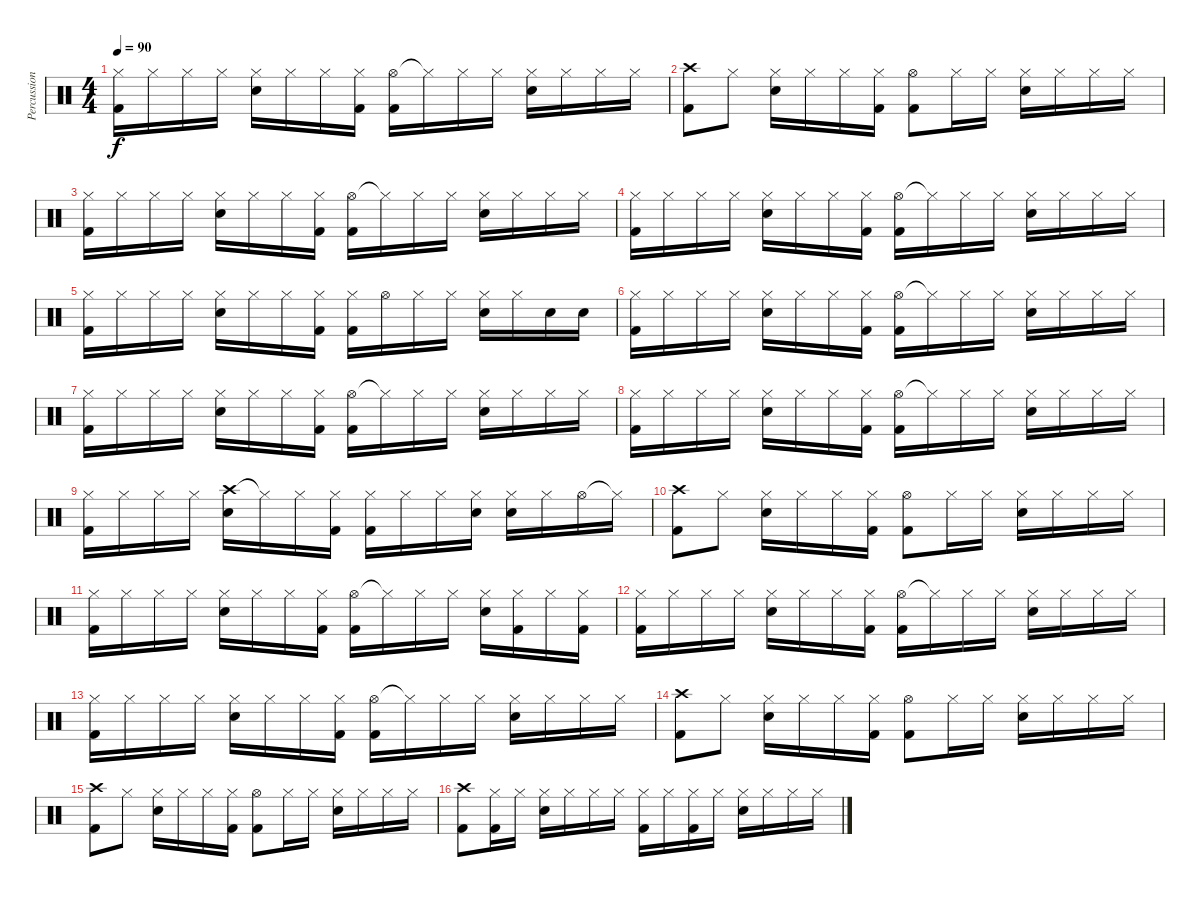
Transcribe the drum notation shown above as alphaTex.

\track ("Percussion" "Percussion") {instrument percussion}
\staff {score}
\articulation defaults
\ts (4 4)
\tempo 90
\clef neutral
\ks c
("Hi-Hat (closed)" "Kick (hit) 2").16{dy f} "Hi-Hat (closed)".16 "Hi-Hat (closed)".16 "Hi-Hat (closed)".16 ("Hi-Hat (closed)" "Electric Snare (hit)").16 "Hi-Hat (closed)".16 "Hi-Hat (closed)".16 ("Hi-Hat (closed)" "Kick (hit) 2").16 ("Hi-Hat (open)" "Kick (hit) 2").16 "Hi-Hat (closed)"{t}.16 "Hi-Hat (closed)".16 "Hi-Hat (closed)".16 ("Hi-Hat (closed)" "Electric Snare (hit)").16 "Hi-Hat (closed)".16 "Hi-Hat (closed)".16 "Hi-Hat (closed)".16 |
("Crash high (hit)" "Kick (hit) 2").8 "Hi-Hat (closed)".8 ("Hi-Hat (closed)" "Electric Snare (hit)").16 "Hi-Hat (closed)".16 "Hi-Hat (closed)".16 ("Hi-Hat (closed)" "Kick (hit) 2").16 ("Hi-Hat (open)" "Kick (hit) 2").8 "Hi-Hat (closed)".16 "Hi-Hat (closed)".16 ("Hi-Hat (closed)" "Electric Snare (hit)").16 "Hi-Hat (closed)".16 "Hi-Hat (closed)".16 "Hi-Hat (closed)".16 |
("Hi-Hat (closed)" "Kick (hit) 2").16 "Hi-Hat (closed)".16 "Hi-Hat (closed)".16 "Hi-Hat (closed)".16 ("Hi-Hat (closed)" "Electric Snare (hit)").16 "Hi-Hat (closed)".16 "Hi-Hat (closed)".16 ("Hi-Hat (closed)" "Kick (hit) 2").16 ("Hi-Hat (open)" "Kick (hit) 2").16 "Hi-Hat (closed)"{t}.16 "Hi-Hat (closed)".16 "Hi-Hat (closed)".16 ("Hi-Hat (closed)" "Electric Snare (hit)").16 "Hi-Hat (closed)".16 "Hi-Hat (closed)".16 "Hi-Hat (closed)".16 |
("Hi-Hat (closed)" "Kick (hit) 2").16 "Hi-Hat (closed)".16 "Hi-Hat (closed)".16 "Hi-Hat (closed)".16 ("Hi-Hat (closed)" "Electric Snare (hit)").16 "Hi-Hat (closed)".16 "Hi-Hat (closed)".16 ("Hi-Hat (closed)" "Kick (hit) 2").16 ("Hi-Hat (open)" "Kick (hit) 2").16 "Hi-Hat (closed)"{t}.16 "Hi-Hat (closed)".16 "Hi-Hat (closed)".16 ("Hi-Hat (closed)" "Electric Snare (hit)").16 "Hi-Hat (closed)".16 "Hi-Hat (closed)".16 "Hi-Hat (closed)".16 |
("Hi-Hat (closed)" "Kick (hit) 2").16 "Hi-Hat (closed)".16 "Hi-Hat (closed)".16 "Hi-Hat (closed)".16 ("Hi-Hat (closed)" "Electric Snare (hit)").16 "Hi-Hat (closed)".16 "Hi-Hat (closed)".16 ("Hi-Hat (closed)" "Kick (hit) 2").16 ("Hi-Hat (closed)" "Kick (hit) 2").16 "Hi-Hat (open)".16 "Hi-Hat (closed)".16 "Hi-Hat (closed)".16 ("Hi-Hat (closed)" "Electric Snare (hit)").16 "Hi-Hat (closed)".16 "Electric Snare (hit)".16 "Electric Snare (hit)".16 |
("Hi-Hat (closed)" "Kick (hit) 2").16 "Hi-Hat (closed)".16 "Hi-Hat (closed)".16 "Hi-Hat (closed)".16 ("Hi-Hat (closed)" "Electric Snare (hit)").16 "Hi-Hat (closed)".16 "Hi-Hat (closed)".16 ("Hi-Hat (closed)" "Kick (hit) 2").16 ("Hi-Hat (open)" "Kick (hit) 2").16 "Hi-Hat (closed)"{t}.16 "Hi-Hat (closed)".16 "Hi-Hat (closed)".16 ("Hi-Hat (closed)" "Electric Snare (hit)").16 "Hi-Hat (closed)".16 "Hi-Hat (closed)".16 "Hi-Hat (closed)".16 |
("Hi-Hat (closed)" "Kick (hit) 2").16 "Hi-Hat (closed)".16 "Hi-Hat (closed)".16 "Hi-Hat (closed)".16 ("Hi-Hat (closed)" "Electric Snare (hit)").16 "Hi-Hat (closed)".16 "Hi-Hat (closed)".16 ("Hi-Hat (closed)" "Kick (hit) 2").16 ("Hi-Hat (open)" "Kick (hit) 2").16 "Hi-Hat (closed)"{t}.16 "Hi-Hat (closed)".16 "Hi-Hat (closed)".16 ("Hi-Hat (closed)" "Electric Snare (hit)").16 "Hi-Hat (closed)".16 "Hi-Hat (closed)".16 "Hi-Hat (closed)".16 |
("Hi-Hat (closed)" "Kick (hit) 2").16 "Hi-Hat (closed)".16 "Hi-Hat (closed)".16 "Hi-Hat (closed)".16 ("Hi-Hat (closed)" "Electric Snare (hit)").16 "Hi-Hat (closed)".16 "Hi-Hat (closed)".16 ("Hi-Hat (closed)" "Kick (hit) 2").16 ("Hi-Hat (open)" "Kick (hit) 2").16 "Hi-Hat (closed)"{t}.16 "Hi-Hat (closed)".16 "Hi-Hat (closed)".16 ("Hi-Hat (closed)" "Electric Snare (hit)").16 "Hi-Hat (closed)".16 "Hi-Hat (closed)".16 "Hi-Hat (closed)".16 |
("Hi-Hat (closed)" "Kick (hit) 2").16 "Hi-Hat (closed)".16 "Hi-Hat (closed)".16 "Hi-Hat (closed)".16 ("Crash high (hit)" "Electric Snare (hit)").16 "Hi-Hat (closed)"{t}.16 "Hi-Hat (closed)".16 ("Hi-Hat (closed)" "Kick (hit) 2").16 ("Hi-Hat (closed)" "Kick (hit) 2").16 "Hi-Hat (closed)".16 "Hi-Hat (closed)".16 ("Hi-Hat (closed)" "Electric Snare (hit)").16 ("Hi-Hat (closed)" "Electric Snare (hit)").16 "Hi-Hat (closed)".16 "Hi-Hat (open)".16 "Hi-Hat (closed)"{t}.16 |
("Crash high (hit)" "Kick (hit) 2").8 "Hi-Hat (closed)".8 ("Hi-Hat (closed)" "Electric Snare (hit)").16 "Hi-Hat (closed)".16 "Hi-Hat (closed)".16 ("Hi-Hat (closed)" "Kick (hit) 2").16 ("Hi-Hat (open)" "Kick (hit) 2").8 "Hi-Hat (closed)".16 "Hi-Hat (closed)".16 ("Hi-Hat (closed)" "Electric Snare (hit)").16 "Hi-Hat (closed)".16 "Hi-Hat (closed)".16 "Hi-Hat (closed)".16 |
("Hi-Hat (closed)" "Kick (hit) 2").16 "Hi-Hat (closed)".16 "Hi-Hat (closed)".16 "Hi-Hat (closed)".16 ("Hi-Hat (closed)" "Electric Snare (hit)").16 "Hi-Hat (closed)".16 "Hi-Hat (closed)".16 ("Hi-Hat (closed)" "Kick (hit) 2").16 ("Hi-Hat (open)" "Kick (hit) 2").16 "Hi-Hat (closed)"{t}.16 "Hi-Hat (closed)".16 "Hi-Hat (closed)".16 ("Hi-Hat (closed)" "Electric Snare (hit)").16 ("Hi-Hat (closed)" "Kick (hit) 2").16 "Hi-Hat (closed)".16 ("Hi-Hat (closed)" "Kick (hit) 2").16 |
("Hi-Hat (closed)" "Kick (hit) 2").16 "Hi-Hat (closed)".16 "Hi-Hat (closed)".16 "Hi-Hat (closed)".16 ("Hi-Hat (closed)" "Electric Snare (hit)").16 "Hi-Hat (closed)".16 "Hi-Hat (closed)".16 ("Hi-Hat (closed)" "Kick (hit) 2").16 ("Hi-Hat (open)" "Kick (hit) 2").16 "Hi-Hat (closed)"{t}.16 "Hi-Hat (closed)".16 "Hi-Hat (closed)".16 ("Hi-Hat (closed)" "Electric Snare (hit)").16 "Hi-Hat (closed)".16 "Hi-Hat (closed)".16 "Hi-Hat (closed)".16 |
("Hi-Hat (closed)" "Kick (hit) 2").16 "Hi-Hat (closed)".16 "Hi-Hat (closed)".16 "Hi-Hat (closed)".16 ("Hi-Hat (closed)" "Electric Snare (hit)").16 "Hi-Hat (closed)".16 "Hi-Hat (closed)".16 ("Hi-Hat (closed)" "Kick (hit) 2").16 ("Hi-Hat (open)" "Kick (hit) 2").16 "Hi-Hat (closed)"{t}.16 "Hi-Hat (closed)".16 "Hi-Hat (closed)".16 ("Hi-Hat (closed)" "Electric Snare (hit)").16 "Hi-Hat (closed)".16 "Hi-Hat (closed)".16 "Hi-Hat (closed)".16 |
("Crash high (hit)" "Kick (hit) 2").8 "Hi-Hat (closed)".8 ("Hi-Hat (closed)" "Electric Snare (hit)").16 "Hi-Hat (closed)".16 "Hi-Hat (closed)".16 ("Hi-Hat (closed)" "Kick (hit) 2").16 ("Hi-Hat (open)" "Kick (hit) 2").8 "Hi-Hat (closed)".16 "Hi-Hat (closed)".16 ("Hi-Hat (closed)" "Electric Snare (hit)").16 "Hi-Hat (closed)".16 "Hi-Hat (closed)".16 "Hi-Hat (closed)".16 |
("Crash high (hit)" "Kick (hit) 2").8 "Hi-Hat (closed)".8 ("Hi-Hat (closed)" "Electric Snare (hit)").16 "Hi-Hat (closed)".16 "Hi-Hat (closed)".16 ("Hi-Hat (closed)" "Kick (hit) 2").16 ("Hi-Hat (open)" "Kick (hit) 2").8 "Hi-Hat (closed)".16 "Hi-Hat (closed)".16 ("Hi-Hat (closed)" "Electric Snare (hit)").16 "Hi-Hat (closed)".16 "Hi-Hat (closed)".16 "Hi-Hat (closed)".16 |
("Crash high (hit)" "Kick (hit) 2").8 ("Hi-Hat (closed)" "Kick (hit) 2").16 "Hi-Hat (closed)".16 ("Hi-Hat (closed)" "Electric Snare (hit)").16 "Hi-Hat (closed)".16 "Hi-Hat (closed)".16 "Hi-Hat (closed)".16 ("Hi-Hat (closed)" "Kick (hit) 2").16 "Hi-Hat (closed)".16 ("Hi-Hat (closed)" "Kick (hit) 2").16 "Hi-Hat (closed)".16 ("Hi-Hat (closed)" "Electric Snare (hit)").16 "Hi-Hat (closed)".16 "Hi-Hat (closed)".16 "Hi-Hat (closed)".16
